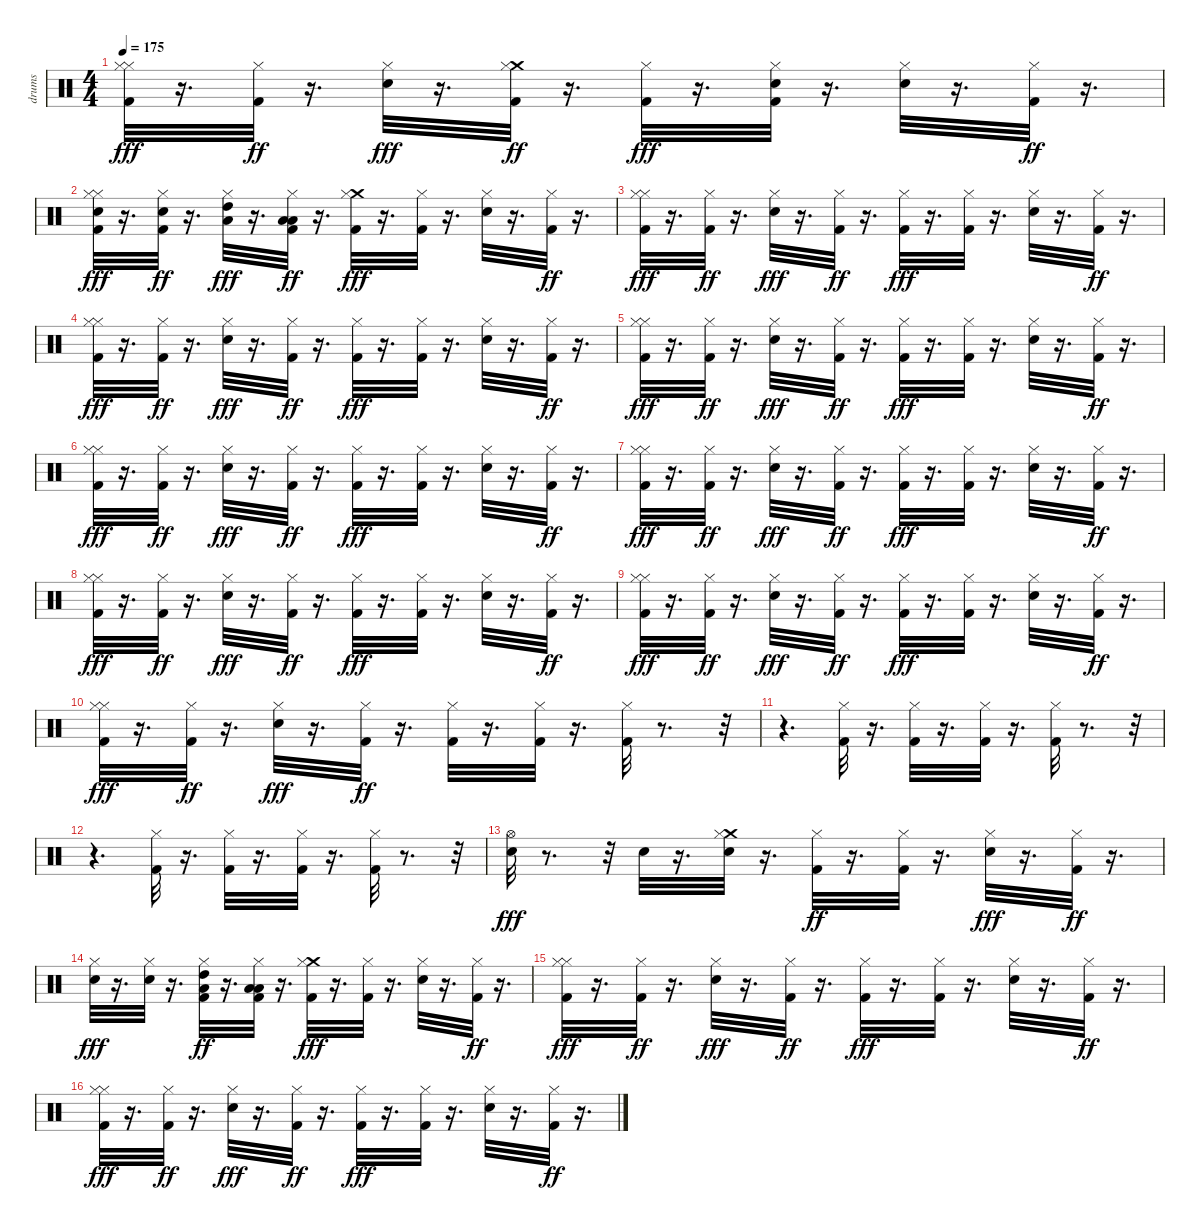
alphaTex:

\track ("drums" "drums") {instrument percussion}
\staff {score}
\articulation defaults
\ts (4 4)
\tempo 175
\clef neutral
\ks c
("Hi-Hat (closed)" "Hi-Hat (closed)" "Kick (hit) 2").32{dy fff} r.16{d} ("Hi-Hat (closed)" "Kick (hit) 2").32{dy ff} r.16{d} ("Hi-Hat (closed)" "Electric Snare (hit)").32{dy fff} r.16{d} ("Crash medium (hit)" "Hi-Hat (closed)" "Kick (hit) 2").32{dy ff} r.16{d} ("Hi-Hat (closed)" "Kick (hit) 2").32{dy fff} r.16{d} ("Hi-Hat (closed)" "Electric Snare (hit)" "Kick (hit) 2").32 r.16{d} ("Hi-Hat (closed)" "Electric Snare (hit)").32 r.16{d} ("Hi-Hat (closed)" "Kick (hit) 2").32{dy ff} r.16{d} |
("Hi-Hat (closed)" "Hi-Hat (closed)" "Electric Snare (hit)" "Kick (hit) 2").32{dy fff} r.16{d} ("Hi-Hat (closed)" "Electric Snare (hit)" "Kick (hit) 2").32{dy ff} r.16{d} ("Hi-Hat (closed)" "Low Tom (hit)" "High Tom (hit)").32{dy fff} r.16{d} ("Hi-Hat (closed)" "Low Floor Tom (hit)" "Low Tom (hit)" "Kick (hit) 2").32{dy ff} r.16{d} ("Crash medium (hit)" "Hi-Hat (closed)" "Kick (hit) 2").32{dy fff} r.16{d} ("Hi-Hat (closed)" "Kick (hit) 2").32 r.16{d} ("Hi-Hat (closed)" "Electric Snare (hit)").32 r.16{d} ("Hi-Hat (closed)" "Kick (hit) 2").32{dy ff} r.16{d} |
("Hi-Hat (closed)" "Hi-Hat (closed)" "Kick (hit) 2").32{dy fff} r.16{d} ("Hi-Hat (closed)" "Kick (hit) 2").32{dy ff} r.16{d} ("Hi-Hat (closed)" "Electric Snare (hit)").32{dy fff} r.16{d} ("Hi-Hat (closed)" "Kick (hit) 2").32{dy ff} r.16{d} ("Hi-Hat (closed)" "Kick (hit) 2").32{dy fff} r.16{d} ("Hi-Hat (closed)" "Kick (hit) 2").32 r.16{d} ("Hi-Hat (closed)" "Electric Snare (hit)").32 r.16{d} ("Hi-Hat (closed)" "Kick (hit) 2").32{dy ff} r.16{d} |
("Hi-Hat (closed)" "Hi-Hat (closed)" "Kick (hit) 2").32{dy fff} r.16{d} ("Hi-Hat (closed)" "Kick (hit) 2").32{dy ff} r.16{d} ("Hi-Hat (closed)" "Electric Snare (hit)").32{dy fff} r.16{d} ("Hi-Hat (closed)" "Kick (hit) 2").32{dy ff} r.16{d} ("Hi-Hat (closed)" "Kick (hit) 2").32{dy fff} r.16{d} ("Hi-Hat (closed)" "Kick (hit) 2").32 r.16{d} ("Hi-Hat (closed)" "Electric Snare (hit)").32 r.16{d} ("Hi-Hat (closed)" "Kick (hit) 2").32{dy ff} r.16{d} |
("Hi-Hat (closed)" "Hi-Hat (closed)" "Kick (hit) 2").32{dy fff} r.16{d} ("Hi-Hat (closed)" "Kick (hit) 2").32{dy ff} r.16{d} ("Hi-Hat (closed)" "Electric Snare (hit)").32{dy fff} r.16{d} ("Hi-Hat (closed)" "Kick (hit) 2").32{dy ff} r.16{d} ("Hi-Hat (closed)" "Kick (hit) 2").32{dy fff} r.16{d} ("Hi-Hat (closed)" "Kick (hit) 2").32 r.16{d} ("Hi-Hat (closed)" "Electric Snare (hit)").32 r.16{d} ("Hi-Hat (closed)" "Kick (hit) 2").32{dy ff} r.16{d} |
("Hi-Hat (closed)" "Hi-Hat (closed)" "Kick (hit) 2").32{dy fff} r.16{d} ("Hi-Hat (closed)" "Kick (hit) 2").32{dy ff} r.16{d} ("Hi-Hat (closed)" "Electric Snare (hit)").32{dy fff} r.16{d} ("Hi-Hat (closed)" "Kick (hit) 2").32{dy ff} r.16{d} ("Hi-Hat (closed)" "Kick (hit) 2").32{dy fff} r.16{d} ("Hi-Hat (closed)" "Kick (hit) 2").32 r.16{d} ("Hi-Hat (closed)" "Electric Snare (hit)").32 r.16{d} ("Hi-Hat (closed)" "Kick (hit) 2").32{dy ff} r.16{d} |
("Hi-Hat (closed)" "Hi-Hat (closed)" "Kick (hit) 2").32{dy fff} r.16{d} ("Hi-Hat (closed)" "Kick (hit) 2").32{dy ff} r.16{d} ("Hi-Hat (closed)" "Electric Snare (hit)").32{dy fff} r.16{d} ("Hi-Hat (closed)" "Kick (hit) 2").32{dy ff} r.16{d} ("Hi-Hat (closed)" "Kick (hit) 2").32{dy fff} r.16{d} ("Hi-Hat (closed)" "Kick (hit) 2").32 r.16{d} ("Hi-Hat (closed)" "Electric Snare (hit)").32 r.16{d} ("Hi-Hat (closed)" "Kick (hit) 2").32{dy ff} r.16{d} |
("Hi-Hat (closed)" "Hi-Hat (closed)" "Kick (hit) 2").32{dy fff} r.16{d} ("Hi-Hat (closed)" "Kick (hit) 2").32{dy ff} r.16{d} ("Hi-Hat (closed)" "Electric Snare (hit)").32{dy fff} r.16{d} ("Hi-Hat (closed)" "Kick (hit) 2").32{dy ff} r.16{d} ("Hi-Hat (closed)" "Kick (hit) 2").32{dy fff} r.16{d} ("Hi-Hat (closed)" "Kick (hit) 2").32 r.16{d} ("Hi-Hat (closed)" "Electric Snare (hit)").32 r.16{d} ("Hi-Hat (closed)" "Kick (hit) 2").32{dy ff} r.16{d} |
("Hi-Hat (closed)" "Hi-Hat (closed)" "Kick (hit) 2").32{dy fff} r.16{d} ("Hi-Hat (closed)" "Kick (hit) 2").32{dy ff} r.16{d} ("Hi-Hat (closed)" "Electric Snare (hit)").32{dy fff} r.16{d} ("Hi-Hat (closed)" "Kick (hit) 2").32{dy ff} r.16{d} ("Hi-Hat (closed)" "Kick (hit) 2").32{dy fff} r.16{d} ("Hi-Hat (closed)" "Kick (hit) 2").32 r.16{d} ("Hi-Hat (closed)" "Electric Snare (hit)").32 r.16{d} ("Hi-Hat (closed)" "Kick (hit) 2").32{dy ff} r.16{d} |
("Hi-Hat (closed)" "Hi-Hat (closed)" "Kick (hit) 2").32{dy fff} r.16{d} ("Hi-Hat (closed)" "Kick (hit) 2").32{dy ff} r.16{d} ("Hi-Hat (closed)" "Electric Snare (hit)").32{dy fff} r.16{d} ("Hi-Hat (closed)" "Kick (hit) 2").32{dy ff} r.16{d} ("Hi-Hat (closed)" "Kick (hit) 2").32 r.16{d} ("Hi-Hat (closed)" "Kick (hit) 2").32 r.16{d} ("Hi-Hat (closed)" "Kick (hit) 2").32 r.8{d} r.32 |
r.4{d} ("Hi-Hat (closed)" "Kick (hit) 2").32 r.16{d} ("Hi-Hat (closed)" "Kick (hit) 2").32 r.16{d} ("Hi-Hat (closed)" "Kick (hit) 2").32 r.16{d} ("Hi-Hat (closed)" "Kick (hit) 2").32 r.8{d} r.32 |
r.4{d} ("Hi-Hat (closed)" "Kick (hit) 2").32 r.16{d} ("Hi-Hat (closed)" "Kick (hit) 2").32 r.16{d} ("Hi-Hat (closed)" "Kick (hit) 2").32 r.16{d} ("Hi-Hat (closed)" "Kick (hit) 2").32 r.8{d} r.32 |
("Hi-Hat (open)" "Electric Snare (hit)").32{dy fff} r.8{d} r.32 "Electric Snare (hit)".32 r.16{d} ("Crash medium (hit)" "Hi-Hat (closed)" "Electric Snare (hit)").32 r.16{d} ("Hi-Hat (closed)" "Kick (hit) 2").32{dy ff} r.16{d} ("Hi-Hat (closed)" "Kick (hit) 2").32 r.16{d} ("Hi-Hat (closed)" "Electric Snare (hit)").32{dy fff} r.16{d} ("Hi-Hat (closed)" "Kick (hit) 2").32{dy ff} r.16{d} |
("Hi-Hat (closed)" "Electric Snare (hit)").32{dy fff} r.16{d} ("Hi-Hat (closed)" "Electric Snare (hit)").32 r.16{d} ("Hi-Hat (closed)" "Low Tom (hit)" "High Tom (hit)" "Kick (hit) 2").32{dy ff} r.16{d} ("Hi-Hat (closed)" "Low Floor Tom (hit)" "Low Tom (hit)" "Kick (hit) 2").32 r.16{d} ("Crash medium (hit)" "Hi-Hat (closed)" "Kick (hit) 2").32{dy fff} r.16{d} ("Hi-Hat (closed)" "Kick (hit) 2").32 r.16{d} ("Hi-Hat (closed)" "Electric Snare (hit)").32 r.16{d} ("Hi-Hat (closed)" "Kick (hit) 2").32{dy ff} r.16{d} |
("Hi-Hat (closed)" "Hi-Hat (closed)" "Kick (hit) 2").32{dy fff} r.16{d} ("Hi-Hat (closed)" "Kick (hit) 2").32{dy ff} r.16{d} ("Hi-Hat (closed)" "Electric Snare (hit)").32{dy fff} r.16{d} ("Hi-Hat (closed)" "Kick (hit) 2").32{dy ff} r.16{d} ("Hi-Hat (closed)" "Kick (hit) 2").32{dy fff} r.16{d} ("Hi-Hat (closed)" "Kick (hit) 2").32 r.16{d} ("Hi-Hat (closed)" "Electric Snare (hit)").32 r.16{d} ("Hi-Hat (closed)" "Kick (hit) 2").32{dy ff} r.16{d} |
("Hi-Hat (closed)" "Hi-Hat (closed)" "Kick (hit) 2").32{dy fff} r.16{d} ("Hi-Hat (closed)" "Kick (hit) 2").32{dy ff} r.16{d} ("Hi-Hat (closed)" "Electric Snare (hit)").32{dy fff} r.16{d} ("Hi-Hat (closed)" "Kick (hit) 2").32{dy ff} r.16{d} ("Hi-Hat (closed)" "Kick (hit) 2").32{dy fff} r.16{d} ("Hi-Hat (closed)" "Kick (hit) 2").32 r.16{d} ("Hi-Hat (closed)" "Electric Snare (hit)").32 r.16{d} ("Hi-Hat (closed)" "Kick (hit) 2").32{dy ff} r.16{d}
